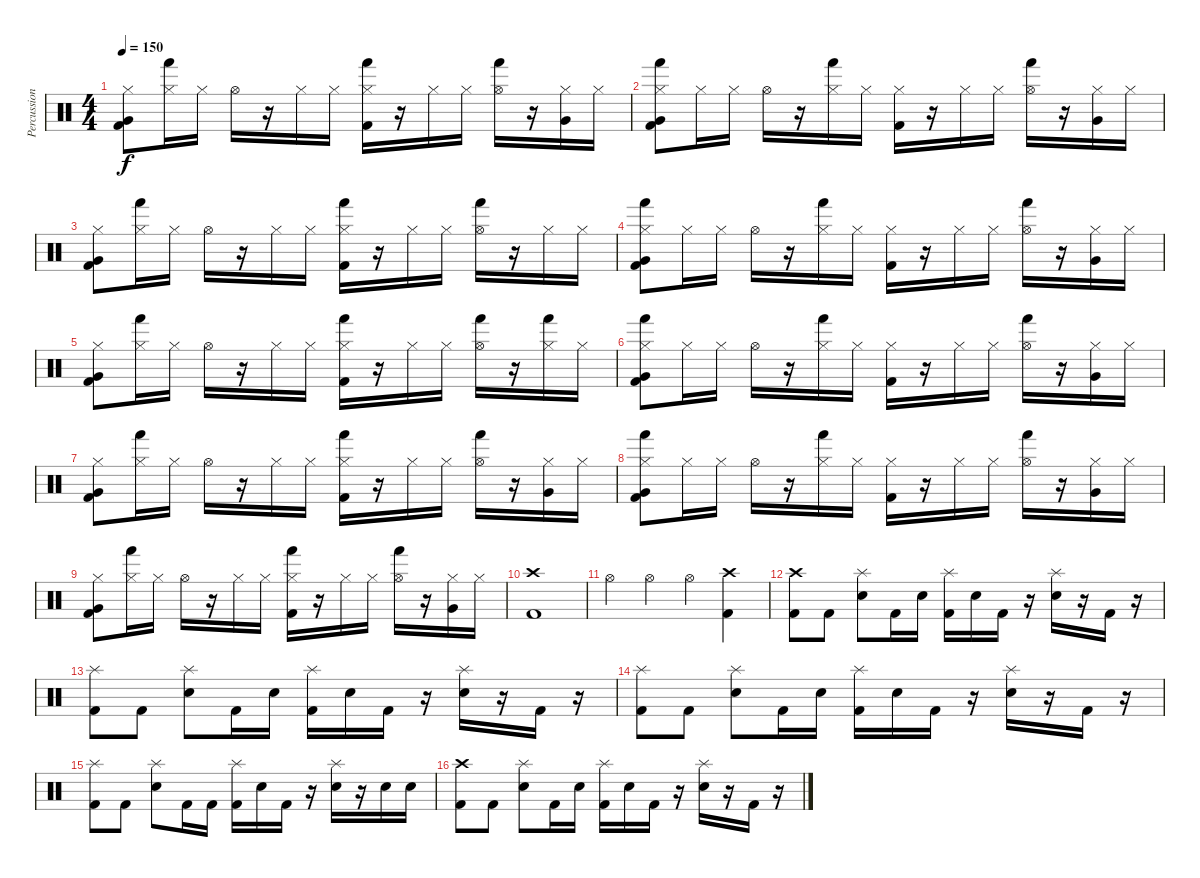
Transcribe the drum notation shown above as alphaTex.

\track ("Percussion" "Percussion") {instrument percussion}
\staff {score}
\articulation defaults
\ts (4 4)
\tempo 150
\clef neutral
\ks c
("Very Low Tom (hit)" "Hi-Hat (closed)" "Kick (hit) 2").8{dy f} ("Hand (hit)" "Hi-Hat (closed)").16 "Hi-Hat (closed)".16 "Hi-Hat (open)".16 r.16 "Hi-Hat (closed)".16 "Hi-Hat (closed)".16 ("Hand (hit)" "Hi-Hat (closed)" "Kick (hit) 2").16 r.16 "Hi-Hat (closed)".16 "Hi-Hat (closed)".16 ("Hand (hit)" "Hi-Hat (open)").16 r.16 ("Very Low Tom (hit)" "Hi-Hat (closed)").16 "Hi-Hat (closed)".16 |
("Hand (hit)" "Very Low Tom (hit)" "Hi-Hat (closed)" "Kick (hit) 2").8 "Hi-Hat (closed)".16 "Hi-Hat (closed)".16 "Hi-Hat (open)".16 r.16 ("Hand (hit)" "Hi-Hat (closed)").16 "Hi-Hat (closed)".16 ("Hi-Hat (closed)" "Kick (hit) 2").16 r.16 "Hi-Hat (closed)".16 "Hi-Hat (closed)".16 ("Hand (hit)" "Hi-Hat (open)").16 r.16 ("Very Low Tom (hit)" "Hi-Hat (closed)").16 "Hi-Hat (closed)".16 |
("Very Low Tom (hit)" "Hi-Hat (closed)" "Kick (hit) 2").8 ("Hand (hit)" "Hi-Hat (closed)").16 "Hi-Hat (closed)".16 "Hi-Hat (open)".16 r.16 "Hi-Hat (closed)".16 "Hi-Hat (closed)".16 ("Hand (hit)" "Hi-Hat (closed)" "Kick (hit) 2").16 r.16 "Hi-Hat (closed)".16 "Hi-Hat (closed)".16 ("Hand (hit)" "Hi-Hat (open)").16 r.16 "Hi-Hat (closed)".16 "Hi-Hat (closed)".16 |
("Hand (hit)" "Very Low Tom (hit)" "Hi-Hat (closed)" "Kick (hit) 2").8 "Hi-Hat (closed)".16 "Hi-Hat (closed)".16 "Hi-Hat (open)".16 r.16 ("Hand (hit)" "Hi-Hat (closed)").16 "Hi-Hat (closed)".16 ("Hi-Hat (closed)" "Kick (hit) 2").16 r.16 "Hi-Hat (closed)".16 "Hi-Hat (closed)".16 ("Hand (hit)" "Hi-Hat (open)").16 r.16 ("Very Low Tom (hit)" "Hi-Hat (closed)").16 "Hi-Hat (closed)".16 |
("Very Low Tom (hit)" "Hi-Hat (closed)" "Kick (hit) 2").8 ("Hand (hit)" "Hi-Hat (closed)").16 "Hi-Hat (closed)".16 "Hi-Hat (open)".16 r.16 "Hi-Hat (closed)".16 "Hi-Hat (closed)".16 ("Hand (hit)" "Hi-Hat (closed)" "Kick (hit) 2").16 r.16 "Hi-Hat (closed)".16 "Hi-Hat (closed)".16 ("Hand (hit)" "Hi-Hat (open)").16 r.16 ("Hand (hit)" "Hi-Hat (closed)").16 "Hi-Hat (closed)".16 |
("Hand (hit)" "Very Low Tom (hit)" "Hi-Hat (closed)" "Kick (hit) 2").8 "Hi-Hat (closed)".16 "Hi-Hat (closed)".16 "Hi-Hat (open)".16 r.16 ("Hand (hit)" "Hi-Hat (closed)").16 "Hi-Hat (closed)".16 ("Hi-Hat (closed)" "Kick (hit) 2").16 r.16 "Hi-Hat (closed)".16 "Hi-Hat (closed)".16 ("Hand (hit)" "Hi-Hat (open)").16 r.16 ("Very Low Tom (hit)" "Hi-Hat (closed)").16 "Hi-Hat (closed)".16 |
("Very Low Tom (hit)" "Hi-Hat (closed)" "Kick (hit) 2").8 ("Hand (hit)" "Hi-Hat (closed)").16 "Hi-Hat (closed)".16 "Hi-Hat (open)".16 r.16 "Hi-Hat (closed)".16 "Hi-Hat (closed)".16 ("Hand (hit)" "Hi-Hat (closed)" "Kick (hit) 2").16 r.16 "Hi-Hat (closed)".16 "Hi-Hat (closed)".16 ("Hand (hit)" "Hi-Hat (open)").16 r.16 ("Very Low Tom (hit)" "Hi-Hat (closed)").16 "Hi-Hat (closed)".16 |
("Hand (hit)" "Very Low Tom (hit)" "Hi-Hat (closed)" "Kick (hit) 2").8 "Hi-Hat (closed)".16 "Hi-Hat (closed)".16 "Hi-Hat (open)".16 r.16 ("Hand (hit)" "Hi-Hat (closed)").16 "Hi-Hat (closed)".16 ("Hi-Hat (closed)" "Kick (hit) 2").16 r.16 "Hi-Hat (closed)".16 "Hi-Hat (closed)".16 ("Hand (hit)" "Hi-Hat (open)").16 r.16 ("Very Low Tom (hit)" "Hi-Hat (closed)").16 "Hi-Hat (closed)".16 |
("Very Low Tom (hit)" "Hi-Hat (closed)" "Kick (hit) 2").8 ("Hand (hit)" "Hi-Hat (closed)").16 "Hi-Hat (closed)".16 "Hi-Hat (open)".16 r.16 "Hi-Hat (closed)".16 "Hi-Hat (closed)".16 ("Hand (hit)" "Hi-Hat (closed)" "Kick (hit) 2").16 r.16 "Hi-Hat (closed)".16 "Hi-Hat (closed)".16 ("Hand (hit)" "Hi-Hat (open)").16 r.16 ("Very Low Tom (hit)" "Hi-Hat (closed)").16 "Hi-Hat (closed)".16 |
("Kick (hit) 2" "Crash high (hit)").1 |
"Hi-Hat (open)".4 "Hi-Hat (open)".4 "Hi-Hat (open)".4 ("Kick (hit) 2" "Crash high (hit)").4 |
("Kick (hit) 2" "Crash high (hit)").8 "Kick (hit) 2".8 ("Electric Snare (hit)" "Splash (hit)").8 "Kick (hit) 2".16 "Electric Snare (hit)".16 ("Kick (hit) 2" "Splash (hit)").16 "Electric Snare (hit)".16 "Kick (hit) 2".16 r.16 ("Electric Snare (hit)" "Splash (hit)").16 r.16 "Kick (hit) 2".16 r.16 |
("Kick (hit) 2" "Splash (hit)").8 "Kick (hit) 2".8 ("Electric Snare (hit)" "Splash (hit)").8 "Kick (hit) 2".16 "Electric Snare (hit)".16 ("Kick (hit) 2" "Splash (hit)").16 "Electric Snare (hit)".16 "Kick (hit) 2".16 r.16 ("Electric Snare (hit)" "Splash (hit)").16 r.16 "Kick (hit) 2".16 r.16 |
("Kick (hit) 2" "Splash (hit)").8 "Kick (hit) 2".8 ("Electric Snare (hit)" "Splash (hit)").8 "Kick (hit) 2".16 "Electric Snare (hit)".16 ("Kick (hit) 2" "Splash (hit)").16 "Electric Snare (hit)".16 "Kick (hit) 2".16 r.16 ("Electric Snare (hit)" "Splash (hit)").16 r.16 "Kick (hit) 2".16 r.16 |
("Kick (hit) 2" "Splash (hit)").8 "Kick (hit) 2".8 ("Electric Snare (hit)" "Splash (hit)").8 "Kick (hit) 2".16 "Kick (hit) 2".16 ("Kick (hit) 2" "Splash (hit)").16 "Electric Snare (hit)".16 "Kick (hit) 2".16 r.16 ("Electric Snare (hit)" "Splash (hit)").16 r.16 "Electric Snare (hit)".16 "Electric Snare (hit)".16 |
("Kick (hit) 2" "Crash high (hit)").8 "Kick (hit) 2".8 ("Electric Snare (hit)" "Splash (hit)").8 "Kick (hit) 2".16 "Electric Snare (hit)".16 ("Kick (hit) 2" "Splash (hit)").16 "Electric Snare (hit)".16 "Kick (hit) 2".16 r.16 ("Electric Snare (hit)" "Splash (hit)").16 r.16 "Kick (hit) 2".16 r.16
